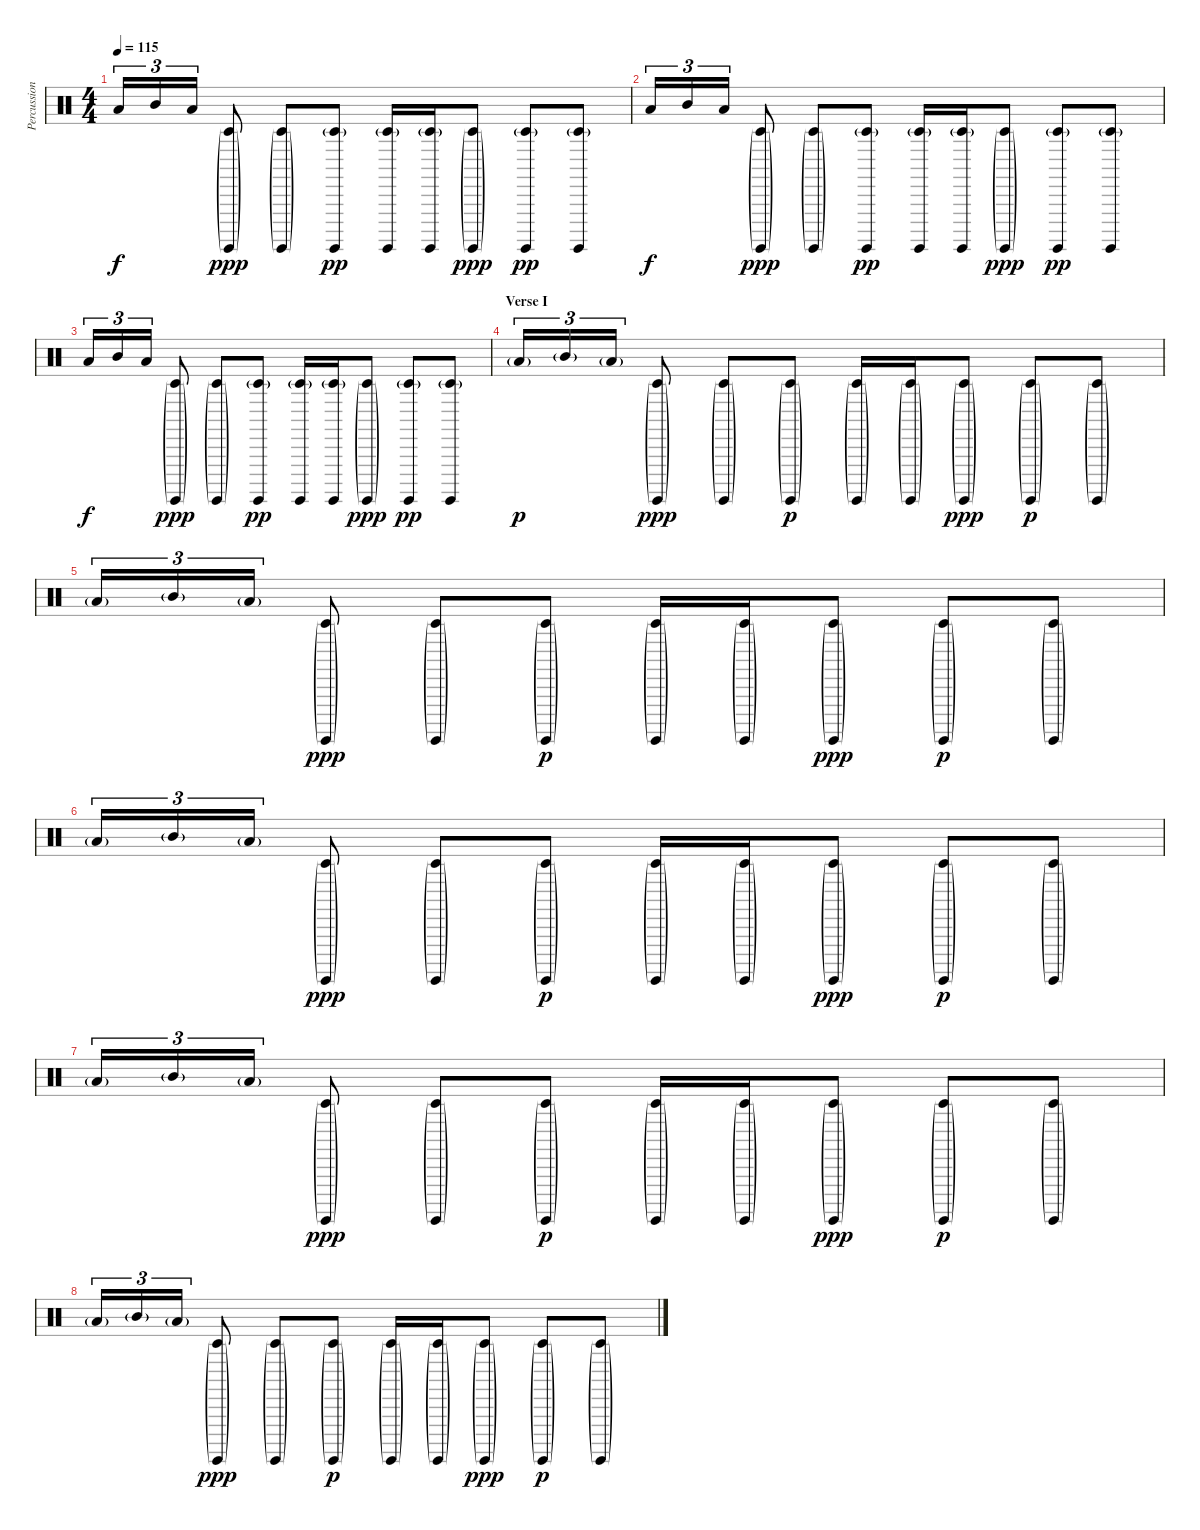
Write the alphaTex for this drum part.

\track ("Percussion - Low Tom" "Percussion") {instrument percussion}
\staff {score}
\articulation defaults
\ts (4 4)
\tempo 115
\clef neutral
\ks c "Low Tom (hit)".16{tu (3 2) dy f} "Mid Tom (hit)".16{tu (3 2)} "Low Tom (hit)".16{tu (3 2)}
("Timbale low (hit)"{g} "Surdo (hit)"{g}).8{dy ppp} ("Timbale low (hit)"{g} "Surdo (hit)"{g}).8 ("Timbale low (hit)"{g} "Surdo (hit)").8{dy pp} ("Timbale low (hit)"{g} "Surdo (hit)").16 ("Timbale low (hit)"{g} "Surdo (hit)").16 ("Timbale low (hit)"{g} "Surdo (hit)"{g}).8{dy ppp} ("Timbale low (hit)"{g} "Surdo (hit)").8{dy pp} ("Timbale low (hit)"{g} "Surdo (hit)").8 |
"Low Tom (hit)".16{tu (3 2) dy f} "Mid Tom (hit)".16{tu (3 2)} "Low Tom (hit)".16{tu (3 2)} ("Timbale low (hit)"{g} "Surdo (hit)"{g}).8{dy ppp} ("Timbale low (hit)"{g} "Surdo (hit)"{g}).8 ("Timbale low (hit)"{g} "Surdo (hit)").8{dy pp} ("Timbale low (hit)"{g} "Surdo (hit)").16 ("Timbale low (hit)"{g} "Surdo (hit)").16 ("Timbale low (hit)"{g} "Surdo (hit)"{g}).8{dy ppp} ("Timbale low (hit)"{g} "Surdo (hit)").8{dy pp} ("Timbale low (hit)"{g} "Surdo (hit)").8 |
"Low Tom (hit)".16{tu (3 2) dy f} "Mid Tom (hit)".16{tu (3 2)} "Low Tom (hit)".16{tu (3 2)} ("Timbale low (hit)"{g} "Surdo (hit)"{g}).8{dy ppp} ("Timbale low (hit)"{g} "Surdo (hit)"{g}).8 ("Timbale low (hit)"{g} "Surdo (hit)").8{dy pp} ("Timbale low (hit)"{g} "Surdo (hit)").16 ("Timbale low (hit)"{g} "Surdo (hit)").16 ("Timbale low (hit)"{g} "Surdo (hit)"{g}).8{dy ppp} ("Timbale low (hit)"{g} "Surdo (hit)").8{dy pp} ("Timbale low (hit)"{g} "Surdo (hit)").8 |
\section ("" "Verse I")
"Low Tom (hit)"{g}.16{tu (3 2) dy p} "Mid Tom (hit)"{g}.16{tu (3 2)} "Low Tom (hit)"{g}.16{tu (3 2)} ("Timbale low (hit)"{g} "Surdo (hit)"{g}).8{dy ppp} ("Timbale low (hit)"{g} "Surdo (hit)"{g}).8 ("Timbale low (hit)"{g} "Surdo (hit)"{g}).8{dy p} ("Timbale low (hit)"{g} "Surdo (hit)"{g}).16 ("Timbale low (hit)"{g} "Surdo (hit)"{g}).16 ("Timbale low (hit)"{g} "Surdo (hit)"{g}).8{dy ppp} ("Timbale low (hit)"{g} "Surdo (hit)"{g}).8{dy p} ("Timbale low (hit)"{g} "Surdo (hit)"{g}).8 |
"Low Tom (hit)"{g}.16{tu (3 2)} "Mid Tom (hit)"{g}.16{tu (3 2)} "Low Tom (hit)"{g}.16{tu (3 2)} ("Timbale low (hit)"{g} "Surdo (hit)"{g}).8{dy ppp} ("Timbale low (hit)"{g} "Surdo (hit)"{g}).8 ("Timbale low (hit)"{g} "Surdo (hit)"{g}).8{dy p} ("Timbale low (hit)"{g} "Surdo (hit)"{g}).16 ("Timbale low (hit)"{g} "Surdo (hit)"{g}).16 ("Timbale low (hit)"{g} "Surdo (hit)"{g}).8{dy ppp} ("Timbale low (hit)"{g} "Surdo (hit)"{g}).8{dy p} ("Timbale low (hit)"{g} "Surdo (hit)"{g}).8 |
"Low Tom (hit)"{g}.16{tu (3 2)} "Mid Tom (hit)"{g}.16{tu (3 2)} "Low Tom (hit)"{g}.16{tu (3 2)} ("Timbale low (hit)"{g} "Surdo (hit)"{g}).8{dy ppp} ("Timbale low (hit)"{g} "Surdo (hit)"{g}).8 ("Timbale low (hit)"{g} "Surdo (hit)"{g}).8{dy p} ("Timbale low (hit)"{g} "Surdo (hit)"{g}).16 ("Timbale low (hit)"{g} "Surdo (hit)"{g}).16 ("Timbale low (hit)"{g} "Surdo (hit)"{g}).8{dy ppp} ("Timbale low (hit)"{g} "Surdo (hit)"{g}).8{dy p} ("Timbale low (hit)"{g} "Surdo (hit)"{g}).8 |
"Low Tom (hit)"{g}.16{tu (3 2)} "Mid Tom (hit)"{g}.16{tu (3 2)} "Low Tom (hit)"{g}.16{tu (3 2)} ("Timbale low (hit)"{g} "Surdo (hit)"{g}).8{dy ppp} ("Timbale low (hit)"{g} "Surdo (hit)"{g}).8 ("Timbale low (hit)"{g} "Surdo (hit)"{g}).8{dy p} ("Timbale low (hit)"{g} "Surdo (hit)"{g}).16 ("Timbale low (hit)"{g} "Surdo (hit)"{g}).16 ("Timbale low (hit)"{g} "Surdo (hit)"{g}).8{dy ppp} ("Timbale low (hit)"{g} "Surdo (hit)"{g}).8{dy p} ("Timbale low (hit)"{g} "Surdo (hit)"{g}).8 |
"Low Tom (hit)"{g}.16{tu (3 2)} "Mid Tom (hit)"{g}.16{tu (3 2)} "Low Tom (hit)"{g}.16{tu (3 2)} ("Timbale low (hit)"{g} "Surdo (hit)"{g}).8{dy ppp} ("Timbale low (hit)"{g} "Surdo (hit)"{g}).8 ("Timbale low (hit)"{g} "Surdo (hit)"{g}).8{dy p} ("Timbale low (hit)"{g} "Surdo (hit)"{g}).16 ("Timbale low (hit)"{g} "Surdo (hit)"{g}).16 ("Timbale low (hit)"{g} "Surdo (hit)"{g}).8{dy ppp} ("Timbale low (hit)"{g} "Surdo (hit)"{g}).8{dy p} ("Timbale low (hit)"{g} "Surdo (hit)"{g}).8
